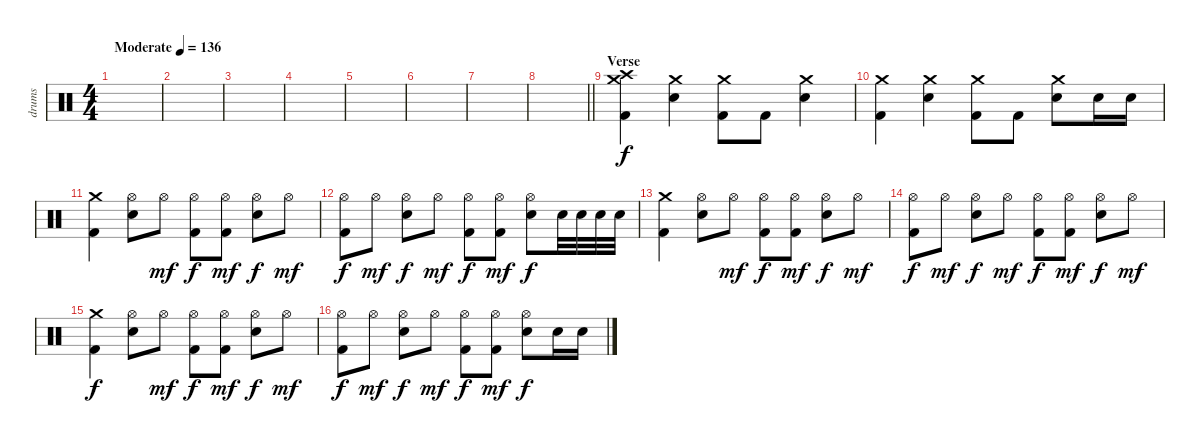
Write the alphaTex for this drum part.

\track ("drums" "drums") {instrument percussion}
\staff {score}
\articulation defaults
\ts (4 4)
\tempo (136 "Moderate")
\clef neutral
\ks c
|
|
|
|
|
|
|
\barLineRight lightlight
|
\section ("" "Verse")
("Crash medium (hit)" "Crash high (hit)" "Kick (hit) 2").4 ("Crash medium (hit)" "Electric Snare (hit)").4 ("Crash medium (hit)" "Kick (hit) 2").8 "Kick (hit) 2".8 ("Crash medium (hit)" "Electric Snare (hit)").4 |
("Crash medium (hit)" "Kick (hit) 2").4 ("Crash medium (hit)" "Electric Snare (hit)").4 ("Crash medium (hit)" "Kick (hit) 2").8 "Kick (hit) 2".8 ("Crash medium (hit)" "Electric Snare (hit)").8 "Electric Snare (hit)".16 "Electric Snare (hit)".16 |
("Crash medium (hit)" "Kick (hit) 2").4 ("Hi-Hat (open)" "Electric Snare (hit)").8 "Hi-Hat (open)".8{dy mf} ("Hi-Hat (open)" "Kick (hit) 2").8{dy f} ("Hi-Hat (open)" "Kick (hit) 2").8{dy mf} ("Hi-Hat (open)" "Electric Snare (hit)").8{dy f} "Hi-Hat (open)".8{dy mf} |
("Hi-Hat (open)" "Kick (hit) 2").8{dy f} "Hi-Hat (open)".8{dy mf} ("Hi-Hat (open)" "Electric Snare (hit)").8{dy f} "Hi-Hat (open)".8{dy mf} ("Hi-Hat (open)" "Kick (hit) 2").8{dy f} ("Hi-Hat (open)" "Kick (hit) 2").8{dy mf} ("Hi-Hat (open)" "Electric Snare (hit)").8{dy f} "Electric Snare (hit)".32 "Electric Snare (hit)".32 "Electric Snare (hit)".32 "Electric Snare (hit)".32 |
("Crash medium (hit)" "Kick (hit) 2").4 ("Hi-Hat (open)" "Electric Snare (hit)").8 "Hi-Hat (open)".8{dy mf} ("Hi-Hat (open)" "Kick (hit) 2").8{dy f} ("Hi-Hat (open)" "Kick (hit) 2").8{dy mf} ("Hi-Hat (open)" "Electric Snare (hit)").8{dy f} "Hi-Hat (open)".8{dy mf} |
("Hi-Hat (open)" "Kick (hit) 2").8{dy f} "Hi-Hat (open)".8{dy mf} ("Hi-Hat (open)" "Electric Snare (hit)").8{dy f} "Hi-Hat (open)".8{dy mf} ("Hi-Hat (open)" "Kick (hit) 2").8{dy f} ("Hi-Hat (open)" "Kick (hit) 2").8{dy mf} ("Hi-Hat (open)" "Electric Snare (hit)").8{dy f} "Hi-Hat (open)".8{dy mf} |
("Crash medium (hit)" "Kick (hit) 2").4{dy f} ("Hi-Hat (open)" "Electric Snare (hit)").8 "Hi-Hat (open)".8{dy mf} ("Hi-Hat (open)" "Kick (hit) 2").8{dy f} ("Hi-Hat (open)" "Kick (hit) 2").8{dy mf} ("Hi-Hat (open)" "Electric Snare (hit)").8{dy f} "Hi-Hat (open)".8{dy mf} |
("Hi-Hat (open)" "Kick (hit) 2").8{dy f} "Hi-Hat (open)".8{dy mf} ("Hi-Hat (open)" "Electric Snare (hit)").8{dy f} "Hi-Hat (open)".8{dy mf} ("Hi-Hat (open)" "Kick (hit) 2").8{dy f} ("Hi-Hat (open)" "Kick (hit) 2").8{dy mf} ("Hi-Hat (open)" "Electric Snare (hit)").8{dy f} "Electric Snare (hit)".16 "Electric Snare (hit)".16
